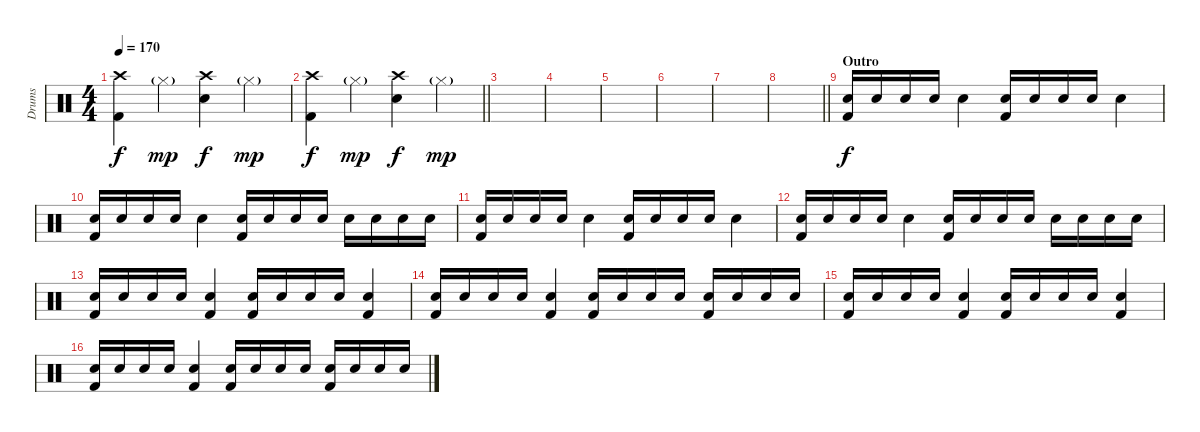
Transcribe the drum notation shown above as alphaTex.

\track ("Drums" "Drums") {instrument percussion}
\staff {score}
\articulation defaults
\ts (4 4)
\tempo 170
\clef neutral
\ks c
("Crash high (hit)" "Kick (hit) 2").4{dy f} "Hi-Hat (closed)"{g}.4{dy mp} ("Crash high (hit)" "Electric Snare (hit)").4{dy f} "Hi-Hat (closed)"{g}.4{dy mp} |
\barLineRight lightlight
("Crash high (hit)" "Kick (hit) 2").4{dy f} "Hi-Hat (closed)"{g}.4{dy mp} ("Crash high (hit)" "Electric Snare (hit)").4{dy f} "Hi-Hat (closed)"{g}.4{dy mp} |
\section ("" "")
|
|
|
|
|
\barLineRight lightlight
|
\section ("" "Outro")
("Electric Snare (hit)" "Kick (hit) 2").16{dy f} "Electric Snare (hit)".16 "Electric Snare (hit)".16 "Electric Snare (hit)".16 "Electric Snare (hit)".4 ("Electric Snare (hit)" "Kick (hit) 2").16 "Electric Snare (hit)".16 "Electric Snare (hit)".16 "Electric Snare (hit)".16 "Electric Snare (hit)".4 |
("Electric Snare (hit)" "Kick (hit) 2").16 "Electric Snare (hit)".16 "Electric Snare (hit)".16 "Electric Snare (hit)".16 "Electric Snare (hit)".4 ("Electric Snare (hit)" "Kick (hit) 2").16 "Electric Snare (hit)".16 "Electric Snare (hit)".16 "Electric Snare (hit)".16 "Electric Snare (hit)".16 "Electric Snare (hit)".16 "Electric Snare (hit)".16 "Electric Snare (hit)".16 |
("Electric Snare (hit)" "Kick (hit) 2").16 "Electric Snare (hit)".16 "Electric Snare (hit)".16 "Electric Snare (hit)".16 "Electric Snare (hit)".4 ("Electric Snare (hit)" "Kick (hit) 2").16 "Electric Snare (hit)".16 "Electric Snare (hit)".16 "Electric Snare (hit)".16 "Electric Snare (hit)".4 |
("Electric Snare (hit)" "Kick (hit) 2").16 "Electric Snare (hit)".16 "Electric Snare (hit)".16 "Electric Snare (hit)".16 "Electric Snare (hit)".4 ("Electric Snare (hit)" "Kick (hit) 2").16 "Electric Snare (hit)".16 "Electric Snare (hit)".16 "Electric Snare (hit)".16 "Electric Snare (hit)".16 "Electric Snare (hit)".16 "Electric Snare (hit)".16 "Electric Snare (hit)".16 |
("Electric Snare (hit)" "Kick (hit) 2").16 "Electric Snare (hit)".16 "Electric Snare (hit)".16 "Electric Snare (hit)".16 ("Electric Snare (hit)" "Kick (hit) 2").4 ("Electric Snare (hit)" "Kick (hit) 2").16 "Electric Snare (hit)".16 "Electric Snare (hit)".16 "Electric Snare (hit)".16 ("Electric Snare (hit)" "Kick (hit) 2").4 |
("Electric Snare (hit)" "Kick (hit) 2").16 "Electric Snare (hit)".16 "Electric Snare (hit)".16 "Electric Snare (hit)".16 ("Electric Snare (hit)" "Kick (hit) 2").4 ("Electric Snare (hit)" "Kick (hit) 2").16 "Electric Snare (hit)".16 "Electric Snare (hit)".16 "Electric Snare (hit)".16 ("Electric Snare (hit)" "Kick (hit) 2").16 "Electric Snare (hit)".16 "Electric Snare (hit)".16 "Electric Snare (hit)".16 |
("Electric Snare (hit)" "Kick (hit) 2").16 "Electric Snare (hit)".16 "Electric Snare (hit)".16 "Electric Snare (hit)".16 ("Electric Snare (hit)" "Kick (hit) 2").4 ("Electric Snare (hit)" "Kick (hit) 2").16 "Electric Snare (hit)".16 "Electric Snare (hit)".16 "Electric Snare (hit)".16 ("Electric Snare (hit)" "Kick (hit) 2").4 |
("Electric Snare (hit)" "Kick (hit) 2").16 "Electric Snare (hit)".16 "Electric Snare (hit)".16 "Electric Snare (hit)".16 ("Electric Snare (hit)" "Kick (hit) 2").4 ("Electric Snare (hit)" "Kick (hit) 2").16 "Electric Snare (hit)".16 "Electric Snare (hit)".16 "Electric Snare (hit)".16 ("Electric Snare (hit)" "Kick (hit) 2").16 "Electric Snare (hit)".16 "Electric Snare (hit)".16 "Electric Snare (hit)".16
